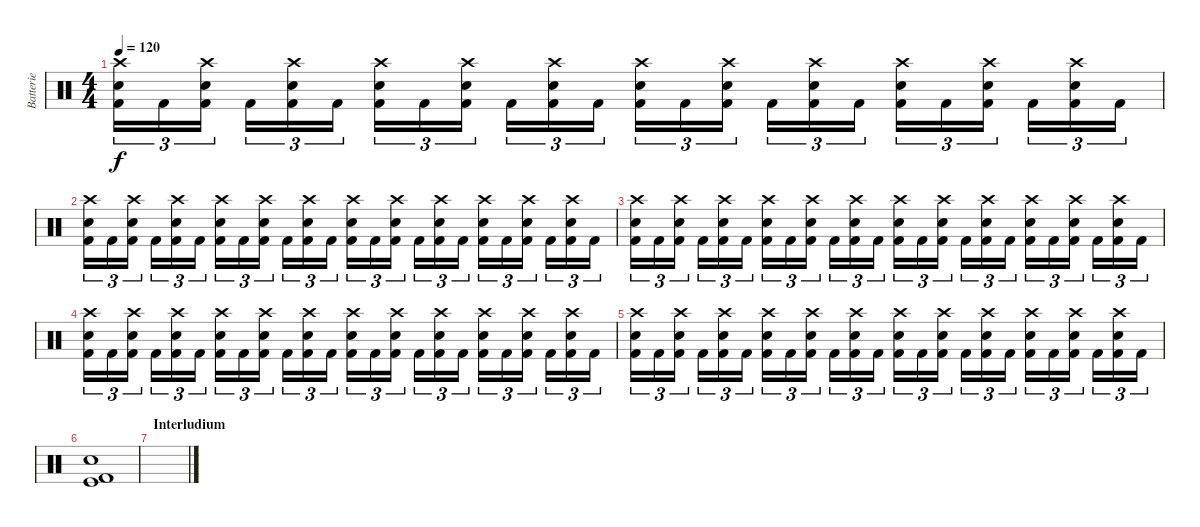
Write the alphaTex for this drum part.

\track ("Batterie" "Batterie") {instrument percussion}
\staff {score}
\articulation defaults
\ts (4 4)
\tempo 120
\clef neutral
\ks c
("Crash high (hit)" "Snare (hit) 2" "Kick (hit) 2").16{tu (3 2) dy f} "Kick (hit) 2".16{tu (3 2)} ("Crash high (hit)" "Snare (hit) 2" "Kick (hit) 2").16{tu (3 2)} "Kick (hit) 2".16{tu (3 2)} ("Crash high (hit)" "Snare (hit) 2" "Kick (hit) 2").16{tu (3 2)} "Kick (hit) 2".16{tu (3 2)} ("Crash high (hit)" "Snare (hit) 2" "Kick (hit) 2").16{tu (3 2)} "Kick (hit) 2".16{tu (3 2)} ("Crash high (hit)" "Snare (hit) 2" "Kick (hit) 2").16{tu (3 2)} "Kick (hit) 2".16{tu (3 2)} ("Crash high (hit)" "Snare (hit) 2" "Kick (hit) 2").16{tu (3 2)} "Kick (hit) 2".16{tu (3 2)} ("Crash high (hit)" "Snare (hit) 2" "Kick (hit) 2").16{tu (3 2)} "Kick (hit) 2".16{tu (3 2)} ("Crash high (hit)" "Snare (hit) 2" "Kick (hit) 2").16{tu (3 2)} "Kick (hit) 2".16{tu (3 2)} ("Crash high (hit)" "Snare (hit) 2" "Kick (hit) 2").16{tu (3 2)} "Kick (hit) 2".16{tu (3 2)} ("Crash high (hit)" "Snare (hit) 2" "Kick (hit) 2").16{tu (3 2)} "Kick (hit) 2".16{tu (3 2)} ("Crash high (hit)" "Snare (hit) 2" "Kick (hit) 2").16{tu (3 2)} "Kick (hit) 2".16{tu (3 2)} ("Crash high (hit)" "Snare (hit) 2" "Kick (hit) 2").16{tu (3 2)} "Kick (hit) 2".16{tu (3 2)} |
("Crash high (hit)" "Snare (hit) 2" "Kick (hit) 2").16{tu (3 2)} "Kick (hit) 2".16{tu (3 2)} ("Crash high (hit)" "Snare (hit) 2" "Kick (hit) 2").16{tu (3 2)} "Kick (hit) 2".16{tu (3 2)} ("Crash high (hit)" "Snare (hit) 2" "Kick (hit) 2").16{tu (3 2)} "Kick (hit) 2".16{tu (3 2)} ("Crash high (hit)" "Snare (hit) 2" "Kick (hit) 2").16{tu (3 2)} "Kick (hit) 2".16{tu (3 2)} ("Crash high (hit)" "Snare (hit) 2" "Kick (hit) 2").16{tu (3 2)} "Kick (hit) 2".16{tu (3 2)} ("Crash high (hit)" "Snare (hit) 2" "Kick (hit) 2").16{tu (3 2)} "Kick (hit) 2".16{tu (3 2)} ("Crash high (hit)" "Snare (hit) 2" "Kick (hit) 2").16{tu (3 2)} "Kick (hit) 2".16{tu (3 2)} ("Crash high (hit)" "Snare (hit) 2" "Kick (hit) 2").16{tu (3 2)} "Kick (hit) 2".16{tu (3 2)} ("Crash high (hit)" "Snare (hit) 2" "Kick (hit) 2").16{tu (3 2)} "Kick (hit) 2".16{tu (3 2)} ("Crash high (hit)" "Snare (hit) 2" "Kick (hit) 2").16{tu (3 2)} "Kick (hit) 2".16{tu (3 2)} ("Crash high (hit)" "Snare (hit) 2" "Kick (hit) 2").16{tu (3 2)} "Kick (hit) 2".16{tu (3 2)} ("Crash high (hit)" "Snare (hit) 2" "Kick (hit) 2").16{tu (3 2)} "Kick (hit) 2".16{tu (3 2)} |
("Crash high (hit)" "Snare (hit) 2" "Kick (hit) 2").16{tu (3 2)} "Kick (hit) 2".16{tu (3 2)} ("Crash high (hit)" "Snare (hit) 2" "Kick (hit) 2").16{tu (3 2)} "Kick (hit) 2".16{tu (3 2)} ("Crash high (hit)" "Snare (hit) 2" "Kick (hit) 2").16{tu (3 2)} "Kick (hit) 2".16{tu (3 2)} ("Crash high (hit)" "Snare (hit) 2" "Kick (hit) 2").16{tu (3 2)} "Kick (hit) 2".16{tu (3 2)} ("Crash high (hit)" "Snare (hit) 2" "Kick (hit) 2").16{tu (3 2)} "Kick (hit) 2".16{tu (3 2)} ("Crash high (hit)" "Snare (hit) 2" "Kick (hit) 2").16{tu (3 2)} "Kick (hit) 2".16{tu (3 2)} ("Crash high (hit)" "Snare (hit) 2" "Kick (hit) 2").16{tu (3 2)} "Kick (hit) 2".16{tu (3 2)} ("Crash high (hit)" "Snare (hit) 2" "Kick (hit) 2").16{tu (3 2)} "Kick (hit) 2".16{tu (3 2)} ("Crash high (hit)" "Snare (hit) 2" "Kick (hit) 2").16{tu (3 2)} "Kick (hit) 2".16{tu (3 2)} ("Crash high (hit)" "Snare (hit) 2" "Kick (hit) 2").16{tu (3 2)} "Kick (hit) 2".16{tu (3 2)} ("Crash high (hit)" "Snare (hit) 2" "Kick (hit) 2").16{tu (3 2)} "Kick (hit) 2".16{tu (3 2)} ("Crash high (hit)" "Snare (hit) 2" "Kick (hit) 2").16{tu (3 2)} "Kick (hit) 2".16{tu (3 2)} |
("Crash high (hit)" "Snare (hit) 2" "Kick (hit) 2").16{tu (3 2)} "Kick (hit) 2".16{tu (3 2)} ("Crash high (hit)" "Snare (hit) 2" "Kick (hit) 2").16{tu (3 2)} "Kick (hit) 2".16{tu (3 2)} ("Crash high (hit)" "Snare (hit) 2" "Kick (hit) 2").16{tu (3 2)} "Kick (hit) 2".16{tu (3 2)} ("Crash high (hit)" "Snare (hit) 2" "Kick (hit) 2").16{tu (3 2)} "Kick (hit) 2".16{tu (3 2)} ("Crash high (hit)" "Snare (hit) 2" "Kick (hit) 2").16{tu (3 2)} "Kick (hit) 2".16{tu (3 2)} ("Crash high (hit)" "Snare (hit) 2" "Kick (hit) 2").16{tu (3 2)} "Kick (hit) 2".16{tu (3 2)} ("Crash high (hit)" "Snare (hit) 2" "Kick (hit) 2").16{tu (3 2)} "Kick (hit) 2".16{tu (3 2)} ("Crash high (hit)" "Snare (hit) 2" "Kick (hit) 2").16{tu (3 2)} "Kick (hit) 2".16{tu (3 2)} ("Crash high (hit)" "Snare (hit) 2" "Kick (hit) 2").16{tu (3 2)} "Kick (hit) 2".16{tu (3 2)} ("Crash high (hit)" "Snare (hit) 2" "Kick (hit) 2").16{tu (3 2)} "Kick (hit) 2".16{tu (3 2)} ("Crash high (hit)" "Snare (hit) 2" "Kick (hit) 2").16{tu (3 2)} "Kick (hit) 2".16{tu (3 2)} ("Crash high (hit)" "Snare (hit) 2" "Kick (hit) 2").16{tu (3 2)} "Kick (hit) 2".16{tu (3 2)} |
("Crash high (hit)" "Snare (hit) 2" "Kick (hit) 2").16{tu (3 2)} "Kick (hit) 2".16{tu (3 2)} ("Crash high (hit)" "Snare (hit) 2" "Kick (hit) 2").16{tu (3 2)} "Kick (hit) 2".16{tu (3 2)} ("Crash high (hit)" "Snare (hit) 2" "Kick (hit) 2").16{tu (3 2)} "Kick (hit) 2".16{tu (3 2)} ("Crash high (hit)" "Snare (hit) 2" "Kick (hit) 2").16{tu (3 2)} "Kick (hit) 2".16{tu (3 2)} ("Crash high (hit)" "Snare (hit) 2" "Kick (hit) 2").16{tu (3 2)} "Kick (hit) 2".16{tu (3 2)} ("Crash high (hit)" "Snare (hit) 2" "Kick (hit) 2").16{tu (3 2)} "Kick (hit) 2".16{tu (3 2)} ("Crash high (hit)" "Snare (hit) 2" "Kick (hit) 2").16{tu (3 2)} "Kick (hit) 2".16{tu (3 2)} ("Crash high (hit)" "Snare (hit) 2" "Kick (hit) 2").16{tu (3 2)} "Kick (hit) 2".16{tu (3 2)} ("Crash high (hit)" "Snare (hit) 2" "Kick (hit) 2").16{tu (3 2)} "Kick (hit) 2".16{tu (3 2)} ("Crash high (hit)" "Snare (hit) 2" "Kick (hit) 2").16{tu (3 2)} "Kick (hit) 2".16{tu (3 2)} ("Crash high (hit)" "Snare (hit) 2" "Kick (hit) 2").16{tu (3 2)} "Kick (hit) 2".16{tu (3 2)} ("Crash high (hit)" "Snare (hit) 2" "Kick (hit) 2").16{tu (3 2)} "Kick (hit) 2".16{tu (3 2)} |
("Snare (hit) 2" "Kick (hit)" "Kick (hit) 2").1 |
\section ("" "Interludium")
